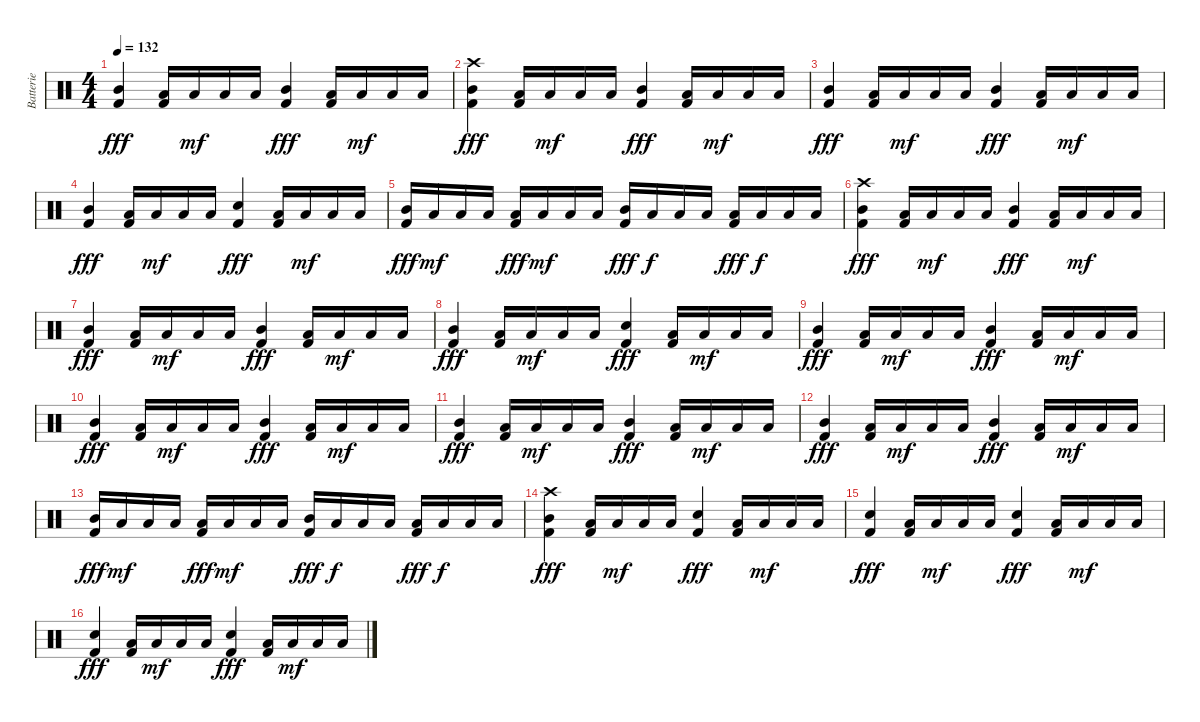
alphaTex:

\track ("Batterie" "Batterie") {instrument percussion}
\staff {score}
\articulation defaults
\ts (4 4)
\tempo 132
\clef neutral
\ks c
("Mid Tom (hit)" "Kick (hit) 2").4{dy fff} ("Low Tom (hit)" "Kick (hit) 2").16 "Low Tom (hit)".16{dy mf} "Low Tom (hit)".16 "Low Tom (hit)".16 ("Mid Tom (hit)" "Kick (hit) 2").4{dy fff} ("Low Tom (hit)" "Kick (hit) 2").16 "Low Tom (hit)".16{dy mf} "Low Tom (hit)".16 "Low Tom (hit)".16 |
("Crash high (hit)" "Mid Tom (hit)" "Kick (hit) 2").4{dy fff} ("Low Tom (hit)" "Kick (hit) 2").16 "Low Tom (hit)".16{dy mf} "Low Tom (hit)".16 "Low Tom (hit)".16 ("Mid Tom (hit)" "Kick (hit) 2").4{dy fff} ("Low Tom (hit)" "Kick (hit) 2").16 "Low Tom (hit)".16{dy mf} "Low Tom (hit)".16 "Low Tom (hit)".16 |
("Mid Tom (hit)" "Kick (hit) 2").4{dy fff} ("Low Tom (hit)" "Kick (hit) 2").16 "Low Tom (hit)".16{dy mf} "Low Tom (hit)".16 "Low Tom (hit)".16 ("Mid Tom (hit)" "Kick (hit) 2").4{dy fff} ("Low Tom (hit)" "Kick (hit) 2").16 "Low Tom (hit)".16{dy mf} "Low Tom (hit)".16 "Low Tom (hit)".16 |
("Mid Tom (hit)" "Kick (hit) 2").4{dy fff} ("Low Tom (hit)" "Kick (hit) 2").16 "Low Tom (hit)".16{dy mf} "Low Tom (hit)".16 "Low Tom (hit)".16 ("Electric Snare (hit)" "Kick (hit) 2").4{dy fff} ("Low Tom (hit)" "Kick (hit) 2").16 "Low Tom (hit)".16{dy mf} "Low Tom (hit)".16 "Low Tom (hit)".16 |
("Mid Tom (hit)" "Kick (hit) 2").16{dy fff} "Low Tom (hit)".16{dy mf} "Low Tom (hit)".16 "Low Tom (hit)".16 ("Low Tom (hit)" "Kick (hit) 2").16{dy fff} "Low Tom (hit)".16{dy mf} "Low Tom (hit)".16 "Low Tom (hit)".16 ("Mid Tom (hit)" "Kick (hit) 2").16{dy fff} "Low Tom (hit)".16{dy f} "Low Tom (hit)".16 "Low Tom (hit)".16 ("Low Tom (hit)" "Kick (hit) 2").16{dy fff} "Low Tom (hit)".16{dy f} "Low Tom (hit)".16 "Low Tom (hit)".16 |
("Crash high (hit)" "Mid Tom (hit)" "Kick (hit) 2").4{dy fff} ("Low Tom (hit)" "Kick (hit) 2").16 "Low Tom (hit)".16{dy mf} "Low Tom (hit)".16 "Low Tom (hit)".16 ("Mid Tom (hit)" "Kick (hit) 2").4{dy fff} ("Low Tom (hit)" "Kick (hit) 2").16 "Low Tom (hit)".16{dy mf} "Low Tom (hit)".16 "Low Tom (hit)".16 |
("Mid Tom (hit)" "Kick (hit) 2").4{dy fff} ("Low Tom (hit)" "Kick (hit) 2").16 "Low Tom (hit)".16{dy mf} "Low Tom (hit)".16 "Low Tom (hit)".16 ("Mid Tom (hit)" "Kick (hit) 2").4{dy fff} ("Low Tom (hit)" "Kick (hit) 2").16 "Low Tom (hit)".16{dy mf} "Low Tom (hit)".16 "Low Tom (hit)".16 |
("Mid Tom (hit)" "Kick (hit) 2").4{dy fff} ("Low Tom (hit)" "Kick (hit) 2").16 "Low Tom (hit)".16{dy mf} "Low Tom (hit)".16 "Low Tom (hit)".16 ("Electric Snare (hit)" "Kick (hit) 2").4{dy fff} ("Low Tom (hit)" "Kick (hit) 2").16 "Low Tom (hit)".16{dy mf} "Low Tom (hit)".16 "Low Tom (hit)".16 |
("Mid Tom (hit)" "Kick (hit) 2").4{dy fff} ("Low Tom (hit)" "Kick (hit) 2").16 "Low Tom (hit)".16{dy mf} "Low Tom (hit)".16 "Low Tom (hit)".16 ("Mid Tom (hit)" "Kick (hit) 2").4{dy fff} ("Low Tom (hit)" "Kick (hit) 2").16 "Low Tom (hit)".16{dy mf} "Low Tom (hit)".16 "Low Tom (hit)".16 |
("Mid Tom (hit)" "Kick (hit) 2").4{dy fff} ("Low Tom (hit)" "Kick (hit) 2").16 "Low Tom (hit)".16{dy mf} "Low Tom (hit)".16 "Low Tom (hit)".16 ("Mid Tom (hit)" "Kick (hit) 2").4{dy fff} ("Low Tom (hit)" "Kick (hit) 2").16 "Low Tom (hit)".16{dy mf} "Low Tom (hit)".16 "Low Tom (hit)".16 |
("Mid Tom (hit)" "Kick (hit) 2").4{dy fff} ("Low Tom (hit)" "Kick (hit) 2").16 "Low Tom (hit)".16{dy mf} "Low Tom (hit)".16 "Low Tom (hit)".16 ("Mid Tom (hit)" "Kick (hit) 2").4{dy fff} ("Low Tom (hit)" "Kick (hit) 2").16 "Low Tom (hit)".16{dy mf} "Low Tom (hit)".16 "Low Tom (hit)".16 |
("Mid Tom (hit)" "Kick (hit) 2").4{dy fff} ("Low Tom (hit)" "Kick (hit) 2").16 "Low Tom (hit)".16{dy mf} "Low Tom (hit)".16 "Low Tom (hit)".16 ("Mid Tom (hit)" "Kick (hit) 2").4{dy fff} ("Low Tom (hit)" "Kick (hit) 2").16 "Low Tom (hit)".16{dy mf} "Low Tom (hit)".16 "Low Tom (hit)".16 |
("Mid Tom (hit)" "Kick (hit) 2").16{dy fff} "Low Tom (hit)".16{dy mf} "Low Tom (hit)".16 "Low Tom (hit)".16 ("Low Tom (hit)" "Kick (hit) 2").16{dy fff} "Low Tom (hit)".16{dy mf} "Low Tom (hit)".16 "Low Tom (hit)".16 ("Mid Tom (hit)" "Kick (hit) 2").16{dy fff} "Low Tom (hit)".16{dy f} "Low Tom (hit)".16 "Low Tom (hit)".16 ("Low Tom (hit)" "Kick (hit) 2").16{dy fff} "Low Tom (hit)".16{dy f} "Low Tom (hit)".16 "Low Tom (hit)".16 |
("Crash high (hit)" "Mid Tom (hit)" "Kick (hit) 2").4{dy fff} ("Low Tom (hit)" "Kick (hit) 2").16 "Low Tom (hit)".16{dy mf} "Low Tom (hit)".16 "Low Tom (hit)".16 ("Electric Snare (hit)" "Kick (hit) 2").4{dy fff} ("Low Tom (hit)" "Kick (hit) 2").16 "Low Tom (hit)".16{dy mf} "Low Tom (hit)".16 "Low Tom (hit)".16 |
("Electric Snare (hit)" "Kick (hit) 2").4{dy fff} ("Low Tom (hit)" "Kick (hit) 2").16 "Low Tom (hit)".16{dy mf} "Low Tom (hit)".16 "Low Tom (hit)".16 ("Electric Snare (hit)" "Kick (hit) 2").4{dy fff} ("Low Tom (hit)" "Kick (hit) 2").16 "Low Tom (hit)".16{dy mf} "Low Tom (hit)".16 "Low Tom (hit)".16 |
("Electric Snare (hit)" "Kick (hit) 2").4{dy fff} ("Low Tom (hit)" "Kick (hit) 2").16 "Low Tom (hit)".16{dy mf} "Low Tom (hit)".16 "Low Tom (hit)".16 ("Electric Snare (hit)" "Kick (hit) 2").4{dy fff} ("Low Tom (hit)" "Kick (hit) 2").16 "Low Tom (hit)".16{dy mf} "Low Tom (hit)".16 "Low Tom (hit)".16
